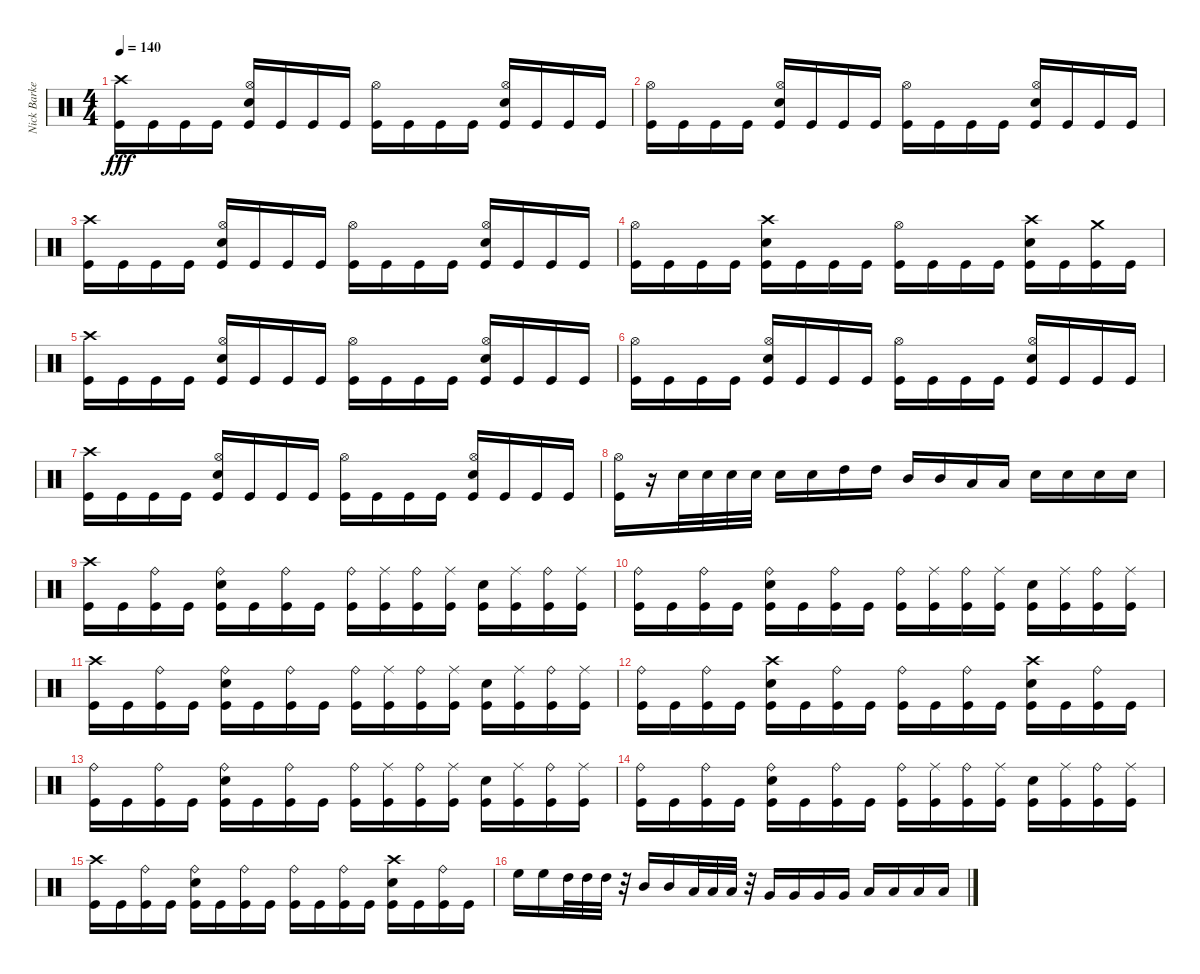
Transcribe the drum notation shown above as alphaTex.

\track ("Nick Barker" "Nick Barke") {instrument percussion}
\staff {score}
\articulation defaults
\ts (4 4)
\tempo 140
\clef neutral
\ks c
("Crash high (hit)" "Kick (hit)").16{dy fff} "Kick (hit)".16 "Kick (hit)".16 "Kick (hit)".16 ("Hi-Hat (open)" "Electric Snare (hit)" "Kick (hit)").16 "Kick (hit)".16 "Kick (hit)".16 "Kick (hit)".16 ("Hi-Hat (open)" "Kick (hit)").16 "Kick (hit)".16 "Kick (hit)".16 "Kick (hit)".16 ("Hi-Hat (open)" "Electric Snare (hit)" "Kick (hit)").16 "Kick (hit)".16 "Kick (hit)".16 "Kick (hit)".16 |
("Hi-Hat (open)" "Kick (hit)").16 "Kick (hit)".16 "Kick (hit)".16 "Kick (hit)".16 ("Hi-Hat (open)" "Electric Snare (hit)" "Kick (hit)").16 "Kick (hit)".16 "Kick (hit)".16 "Kick (hit)".16 ("Hi-Hat (open)" "Kick (hit)").16 "Kick (hit)".16 "Kick (hit)".16 "Kick (hit)".16 ("Hi-Hat (open)" "Electric Snare (hit)" "Kick (hit)").16 "Kick (hit)".16 "Kick (hit)".16 "Kick (hit)".16 |
("Crash high (hit)" "Kick (hit)").16 "Kick (hit)".16 "Kick (hit)".16 "Kick (hit)".16 ("Hi-Hat (open)" "Electric Snare (hit)" "Kick (hit)").16 "Kick (hit)".16 "Kick (hit)".16 "Kick (hit)".16 ("Hi-Hat (open)" "Kick (hit)").16 "Kick (hit)".16 "Kick (hit)".16 "Kick (hit)".16 ("Hi-Hat (open)" "Electric Snare (hit)" "Kick (hit)").16 "Kick (hit)".16 "Kick (hit)".16 "Kick (hit)".16 |
("Hi-Hat (open)" "Kick (hit)").16 "Kick (hit)".16 "Kick (hit)".16 "Kick (hit)".16 ("Crash high (hit)" "Electric Snare (hit)" "Kick (hit)").16 "Kick (hit)".16 "Kick (hit)".16 "Kick (hit)".16 ("Hi-Hat (open)" "Kick (hit)").16 "Kick (hit)".16 "Kick (hit)".16 "Kick (hit)".16 ("Crash high (hit)" "Electric Snare (hit)" "Kick (hit)").16 "Kick (hit)".16 ("Crash medium (hit)" "Kick (hit)").16 "Kick (hit)".16 |
("Crash high (hit)" "Kick (hit)").16 "Kick (hit)".16 "Kick (hit)".16 "Kick (hit)".16 ("Hi-Hat (open)" "Electric Snare (hit)" "Kick (hit)").16 "Kick (hit)".16 "Kick (hit)".16 "Kick (hit)".16 ("Hi-Hat (open)" "Kick (hit)").16 "Kick (hit)".16 "Kick (hit)".16 "Kick (hit)".16 ("Hi-Hat (open)" "Electric Snare (hit)" "Kick (hit)").16 "Kick (hit)".16 "Kick (hit)".16 "Kick (hit)".16 |
("Hi-Hat (open)" "Kick (hit)").16 "Kick (hit)".16 "Kick (hit)".16 "Kick (hit)".16 ("Hi-Hat (open)" "Electric Snare (hit)" "Kick (hit)").16 "Kick (hit)".16 "Kick (hit)".16 "Kick (hit)".16 ("Hi-Hat (open)" "Kick (hit)").16 "Kick (hit)".16 "Kick (hit)".16 "Kick (hit)".16 ("Hi-Hat (open)" "Electric Snare (hit)" "Kick (hit)").16 "Kick (hit)".16 "Kick (hit)".16 "Kick (hit)".16 |
("Crash high (hit)" "Kick (hit)").16 "Kick (hit)".16 "Kick (hit)".16 "Kick (hit)".16 ("Hi-Hat (open)" "Electric Snare (hit)" "Kick (hit)").16 "Kick (hit)".16 "Kick (hit)".16 "Kick (hit)".16 ("Hi-Hat (open)" "Kick (hit)").16 "Kick (hit)".16 "Kick (hit)".16 "Kick (hit)".16 ("Hi-Hat (open)" "Electric Snare (hit)" "Kick (hit)").16 "Kick (hit)".16 "Kick (hit)".16 "Kick (hit)".16 |
("Hi-Hat (open)" "Kick (hit)").16 r.16 "Electric Snare (hit)".32 "Electric Snare (hit)".32 "Electric Snare (hit)".32 "Electric Snare (hit)".32 "Electric Snare (hit)".16 "Electric Snare (hit)".16 "High Tom (hit)".16 "High Tom (hit)".16 "Mid Tom (hit)".16 "Mid Tom (hit)".16 "Low Tom (hit)".16 "Low Tom (hit)".16 "Electric Snare (hit)".16 "Electric Snare (hit)".16 "Electric Snare (hit)".16 "Electric Snare (hit)".16 |
("Crash high (hit)" "Kick (hit)").16 "Kick (hit)".16 ("Ride (bell)" "Kick (hit)").16 "Kick (hit)".16 ("Ride (bell)" "Electric Snare (hit)" "Kick (hit)").16 "Kick (hit)".16 ("Ride (bell)" "Kick (hit)").16 "Kick (hit)".16 ("Ride (bell)" "Kick (hit)").16 ("Ride (middle)" "Kick (hit)").16 ("Ride (bell)" "Kick (hit)").16 ("Ride (middle)" "Kick (hit)").16 ("Electric Snare (hit)" "Kick (hit)").16 ("Ride (middle)" "Kick (hit)").16 ("Ride (bell)" "Kick (hit)").16 ("Ride (middle)" "Kick (hit)").16 |
("Ride (bell)" "Kick (hit)").16 "Kick (hit)".16 ("Ride (bell)" "Kick (hit)").16 "Kick (hit)".16 ("Ride (bell)" "Electric Snare (hit)" "Kick (hit)").16 "Kick (hit)".16 ("Ride (bell)" "Kick (hit)").16 "Kick (hit)".16 ("Ride (bell)" "Kick (hit)").16 ("Ride (middle)" "Kick (hit)").16 ("Ride (bell)" "Kick (hit)").16 ("Ride (middle)" "Kick (hit)").16 ("Electric Snare (hit)" "Kick (hit)").16 ("Ride (middle)" "Kick (hit)").16 ("Ride (bell)" "Kick (hit)").16 ("Ride (middle)" "Kick (hit)").16 |
("Crash high (hit)" "Kick (hit)").16 "Kick (hit)".16 ("Ride (bell)" "Kick (hit)").16 "Kick (hit)".16 ("Ride (bell)" "Electric Snare (hit)" "Kick (hit)").16 "Kick (hit)".16 ("Ride (bell)" "Kick (hit)").16 "Kick (hit)".16 ("Ride (bell)" "Kick (hit)").16 ("Ride (middle)" "Kick (hit)").16 ("Ride (bell)" "Kick (hit)").16 ("Ride (middle)" "Kick (hit)").16 ("Electric Snare (hit)" "Kick (hit)").16 ("Ride (middle)" "Kick (hit)").16 ("Ride (bell)" "Kick (hit)").16 ("Ride (middle)" "Kick (hit)").16 |
("Ride (bell)" "Kick (hit)").16 "Kick (hit)".16 ("Ride (bell)" "Kick (hit)").16 "Kick (hit)".16 ("Crash high (hit)" "Electric Snare (hit)" "Kick (hit)").16 "Kick (hit)".16 ("Ride (bell)" "Kick (hit)").16 "Kick (hit)".16 ("Ride (bell)" "Kick (hit)").16 "Kick (hit)".16 ("Ride (bell)" "Kick (hit)").16 "Kick (hit)".16 ("Crash high (hit)" "Electric Snare (hit)" "Kick (hit)").16 "Kick (hit)".16 ("Ride (bell)" "Kick (hit)").16 "Kick (hit)".16 |
("Ride (bell)" "Kick (hit)").16 "Kick (hit)".16 ("Ride (bell)" "Kick (hit)").16 "Kick (hit)".16 ("Ride (bell)" "Electric Snare (hit)" "Kick (hit)").16 "Kick (hit)".16 ("Ride (bell)" "Kick (hit)").16 "Kick (hit)".16 ("Ride (bell)" "Kick (hit)").16 ("Ride (middle)" "Kick (hit)").16 ("Ride (bell)" "Kick (hit)").16 ("Ride (middle)" "Kick (hit)").16 ("Electric Snare (hit)" "Kick (hit)").16 ("Ride (middle)" "Kick (hit)").16 ("Ride (bell)" "Kick (hit)").16 ("Ride (middle)" "Kick (hit)").16 |
("Ride (bell)" "Kick (hit)").16 "Kick (hit)".16 ("Ride (bell)" "Kick (hit)").16 "Kick (hit)".16 ("Ride (bell)" "Electric Snare (hit)" "Kick (hit)").16 "Kick (hit)".16 ("Ride (bell)" "Kick (hit)").16 "Kick (hit)".16 ("Ride (bell)" "Kick (hit)").16 ("Ride (middle)" "Kick (hit)").16 ("Ride (bell)" "Kick (hit)").16 ("Ride (middle)" "Kick (hit)").16 ("Electric Snare (hit)" "Kick (hit)").16 ("Ride (middle)" "Kick (hit)").16 ("Ride (bell)" "Kick (hit)").16 ("Ride (middle)" "Kick (hit)").16 |
("Crash high (hit)" "Kick (hit)").16 "Kick (hit)".16 ("Ride (bell)" "Kick (hit)").16 "Kick (hit)".16 ("Ride (bell)" "Electric Snare (hit)" "Kick (hit)").16 "Kick (hit)".16 ("Ride (bell)" "Kick (hit)").16 "Kick (hit)".16 ("Ride (bell)" "Kick (hit)").16 "Kick (hit)".16 ("Ride (bell)" "Kick (hit)").16 "Kick (hit)".16 ("Crash high (hit)" "Electric Snare (hit)" "Kick (hit)").16 "Kick (hit)".16 ("Ride (bell)" "Kick (hit)").16 "Kick (hit)".16 |
"High Floor Tom (hit)".16 "High Floor Tom (hit)".16 "High Tom (hit)".32 "High Tom (hit)".32 "High Tom (hit)".32 r.32 "Mid Tom (hit)".16 "Mid Tom (hit)".16 "Low Tom (hit)".32 "Low Tom (hit)".32 "Low Tom (hit)".32 r.32 "Very Low Tom (hit)".16 "Very Low Tom (hit)".16 "Very Low Tom (hit)".16 "Very Low Tom (hit)".16 "Low Floor Tom (hit)".16 "Low Floor Tom (hit)".16 "Low Floor Tom (hit)".16 "Low Floor Tom (hit)".16
